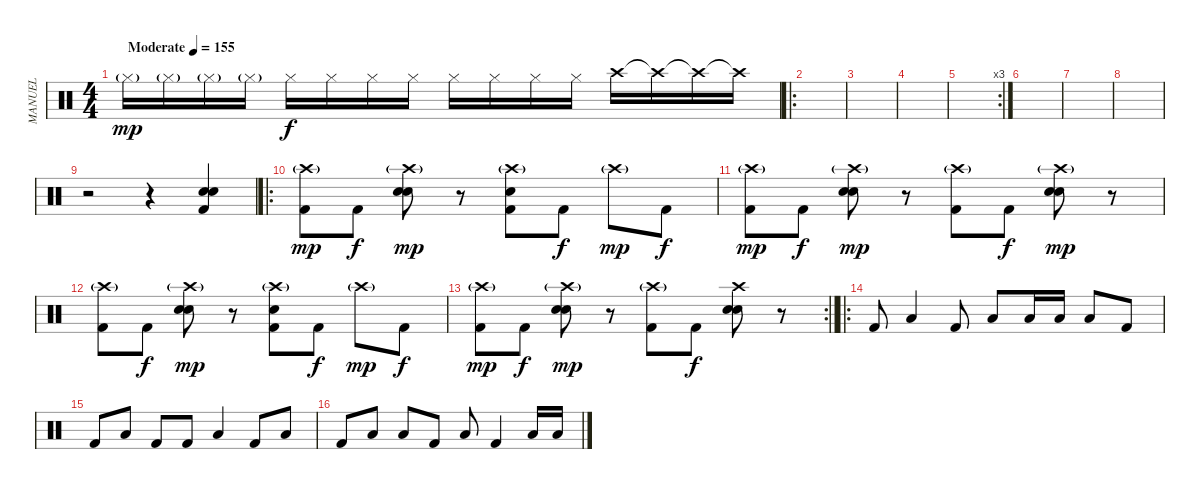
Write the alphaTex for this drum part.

\track ("MANUEL" "MANUEL") {instrument percussion}
\staff {score}
\articulation defaults
\ts (4 4)
\tempo (155 "Moderate")
\clef neutral
\ks c "Hi-Hat (closed)"{g}.16{dy mp} "Hi-Hat (closed)"{g}.16 "Hi-Hat (closed)"{g}.16 "Hi-Hat (closed)"{g}.16 "Hi-Hat (closed)".16{dy f} "Hi-Hat (closed)".16 "Hi-Hat (closed)".16 "Hi-Hat (closed)".16 "Hi-Hat (closed)".16 "Hi-Hat (closed)".16 "Hi-Hat (closed)".16 "Hi-Hat (closed)".16 "Crash high (hit)".16 "Crash high (hit)"{t}.16 "Crash high (hit)"{t}.16 "Crash high (hit)"{t}.16
|
\ro
|
|
|
\rc 3
|
|
|
|
r.2 r.4 ("Kick (hit) 2" "Snare (hit) 2" "Electric Snare (hit)").4 |
\ro
("Crash high (hit)"{g} "Kick (hit) 2").8{dy mp} "Kick (hit) 2".8{dy f} ("Crash high (hit)"{g} "Electric Snare (hit)" "Snare (hit) 2").8{dy mp} r.8 ("Crash high (hit)"{g} "Electric Snare (hit)" "Kick (hit) 2").8 "Kick (hit) 2".8{dy f} "Crash high (hit)"{g}.8{dy mp} "Kick (hit) 2".8{dy f} |
("Crash high (hit)"{g} "Kick (hit) 2").8{dy mp} "Kick (hit) 2".8{dy f} ("Crash high (hit)"{g} "Electric Snare (hit)" "Snare (hit) 2").8{dy mp} r.8 ("Crash high (hit)"{g} "Kick (hit) 2").8 "Kick (hit) 2".8{dy f} ("Crash high (hit)"{g} "Electric Snare (hit)" "Snare (hit) 2").8{dy mp} r.8 |
("Crash high (hit)"{g} "Kick (hit) 2").8 "Kick (hit) 2".8{dy f} ("Crash high (hit)"{g} "Electric Snare (hit)" "Snare (hit) 2").8{dy mp} r.8 ("Crash high (hit)"{g} "Electric Snare (hit)" "Kick (hit) 2").8 "Kick (hit) 2".8{dy f} "Crash high (hit)"{g}.8{dy mp} "Kick (hit) 2".8{dy f} |
\rc 2
\barLineRight lightlight
("Crash high (hit)"{g} "Kick (hit) 2").8{dy mp} "Kick (hit) 2".8{dy f} ("Crash high (hit)"{g} "Electric Snare (hit)" "Snare (hit) 2").8{dy mp} r.8 ("Crash high (hit)"{g} "Kick (hit) 2").8 "Kick (hit) 2".8{dy f} ("Crash high (hit)" "Electric Snare (hit)" "Snare (hit) 2").8 r.8 |
\ro "Kick (hit) 2".8 "Low Floor Tom (hit)".4 "Kick (hit) 2".8 "Low Floor Tom (hit)".8 "Low Floor Tom (hit)".16 "Low Floor Tom (hit)".16 "Low Floor Tom (hit)".8 "Kick (hit) 2".8
|
"Kick (hit) 2".8 "Low Floor Tom (hit)".8 "Kick (hit) 2".8 "Kick (hit) 2".8 "Low Floor Tom (hit)".4 "Kick (hit) 2".8 "Low Floor Tom (hit)".8 |
"Kick (hit) 2".8 "Low Floor Tom (hit)".8 "Low Floor Tom (hit)".8 "Kick (hit) 2".8 "Low Floor Tom (hit)".8 "Kick (hit) 2".4 "Low Floor Tom (hit)".16 "Low Floor Tom (hit)".16
